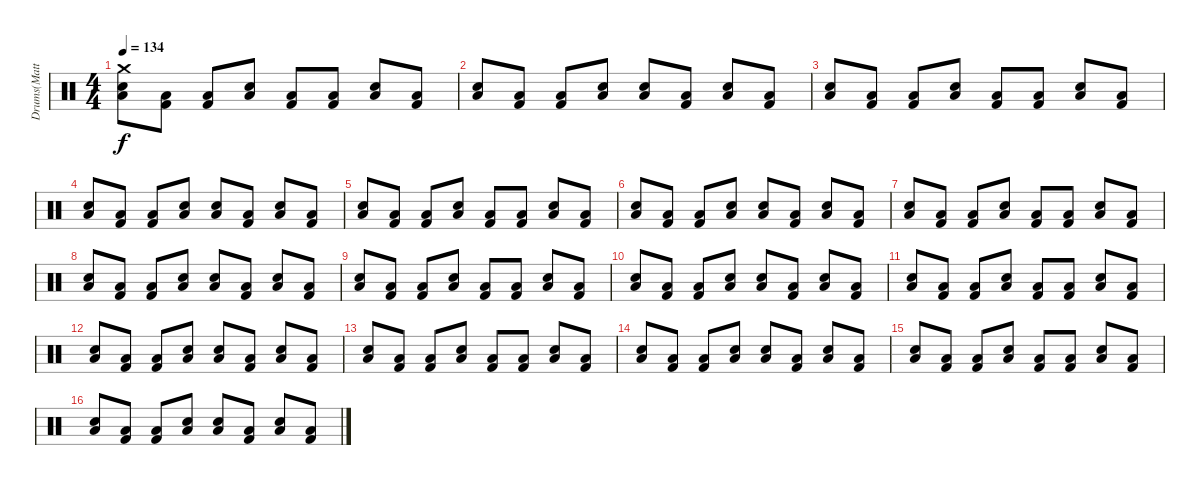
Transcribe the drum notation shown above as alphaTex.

\track ("Drums(Matthias)" "Drums(Matt") {instrument percussion}
\staff {score}
\articulation defaults
\ts (4 4)
\tempo 134
\clef neutral
\ks c
("Crash medium (hit)" "Low Tom (hit)" "Snare (hit) 2").8{dy f volume 10} ("Low Tom (hit)" "Kick (hit) 2").8 ("Low Tom (hit)" "Kick (hit) 2").8 ("Low Tom (hit)" "Snare (hit) 2").8 ("Low Tom (hit)" "Kick (hit) 2").8 ("Low Tom (hit)" "Kick (hit) 2").8 ("Low Tom (hit)" "Snare (hit) 2").8 ("Low Tom (hit)" "Kick (hit) 2").8 |
("Low Tom (hit)" "Snare (hit) 2").8 ("Low Tom (hit)" "Kick (hit) 2").8 ("Low Tom (hit)" "Kick (hit) 2").8 ("Low Tom (hit)" "Snare (hit) 2").8 ("Low Tom (hit)" "Snare (hit) 2").8 ("Low Tom (hit)" "Kick (hit) 2").8 ("Low Tom (hit)" "Snare (hit) 2").8 ("Low Tom (hit)" "Kick (hit) 2").8 |
("Low Tom (hit)" "Snare (hit) 2").8 ("Low Tom (hit)" "Kick (hit) 2").8 ("Low Tom (hit)" "Kick (hit) 2").8 ("Low Tom (hit)" "Snare (hit) 2").8 ("Low Tom (hit)" "Kick (hit) 2").8 ("Low Tom (hit)" "Kick (hit) 2").8 ("Low Tom (hit)" "Snare (hit) 2").8 ("Low Tom (hit)" "Kick (hit) 2").8 |
("Low Tom (hit)" "Snare (hit) 2").8 ("Low Tom (hit)" "Kick (hit) 2").8 ("Low Tom (hit)" "Kick (hit) 2").8 ("Low Tom (hit)" "Snare (hit) 2").8 ("Low Tom (hit)" "Snare (hit) 2").8 ("Low Tom (hit)" "Kick (hit) 2").8 ("Low Tom (hit)" "Snare (hit) 2").8 ("Low Tom (hit)" "Kick (hit) 2").8 |
("Low Tom (hit)" "Snare (hit) 2").8 ("Low Tom (hit)" "Kick (hit) 2").8 ("Low Tom (hit)" "Kick (hit) 2").8 ("Low Tom (hit)" "Snare (hit) 2").8 ("Low Tom (hit)" "Kick (hit) 2").8 ("Low Tom (hit)" "Kick (hit) 2").8 ("Low Tom (hit)" "Snare (hit) 2").8 ("Low Tom (hit)" "Kick (hit) 2").8 |
("Low Tom (hit)" "Snare (hit) 2").8 ("Low Tom (hit)" "Kick (hit) 2").8 ("Low Tom (hit)" "Kick (hit) 2").8 ("Low Tom (hit)" "Snare (hit) 2").8 ("Low Tom (hit)" "Snare (hit) 2").8 ("Low Tom (hit)" "Kick (hit) 2").8 ("Low Tom (hit)" "Snare (hit) 2").8 ("Low Tom (hit)" "Kick (hit) 2").8 |
("Low Tom (hit)" "Snare (hit) 2").8 ("Low Tom (hit)" "Kick (hit) 2").8 ("Low Tom (hit)" "Kick (hit) 2").8 ("Low Tom (hit)" "Snare (hit) 2").8 ("Low Tom (hit)" "Kick (hit) 2").8 ("Low Tom (hit)" "Kick (hit) 2").8 ("Low Tom (hit)" "Snare (hit) 2").8 ("Low Tom (hit)" "Kick (hit) 2").8 |
("Low Tom (hit)" "Snare (hit) 2").8 ("Low Tom (hit)" "Kick (hit) 2").8 ("Low Tom (hit)" "Kick (hit) 2").8 ("Low Tom (hit)" "Snare (hit) 2").8 ("Low Tom (hit)" "Snare (hit) 2").8 ("Low Tom (hit)" "Kick (hit) 2").8 ("Low Tom (hit)" "Snare (hit) 2").8 ("Low Tom (hit)" "Kick (hit) 2").8 |
("Low Tom (hit)" "Snare (hit) 2").8 ("Low Tom (hit)" "Kick (hit) 2").8 ("Low Tom (hit)" "Kick (hit) 2").8 ("Low Tom (hit)" "Snare (hit) 2").8 ("Low Tom (hit)" "Kick (hit) 2").8 ("Low Tom (hit)" "Kick (hit) 2").8 ("Low Tom (hit)" "Snare (hit) 2").8 ("Low Tom (hit)" "Kick (hit) 2").8 |
("Low Tom (hit)" "Snare (hit) 2").8 ("Low Tom (hit)" "Kick (hit) 2").8 ("Low Tom (hit)" "Kick (hit) 2").8 ("Low Tom (hit)" "Snare (hit) 2").8 ("Low Tom (hit)" "Snare (hit) 2").8 ("Low Tom (hit)" "Kick (hit) 2").8 ("Low Tom (hit)" "Snare (hit) 2").8 ("Low Tom (hit)" "Kick (hit) 2").8 |
("Low Tom (hit)" "Snare (hit) 2").8 ("Low Tom (hit)" "Kick (hit) 2").8 ("Low Tom (hit)" "Kick (hit) 2").8 ("Low Tom (hit)" "Snare (hit) 2").8 ("Low Tom (hit)" "Kick (hit) 2").8 ("Low Tom (hit)" "Kick (hit) 2").8 ("Low Tom (hit)" "Snare (hit) 2").8 ("Low Tom (hit)" "Kick (hit) 2").8 |
("Low Tom (hit)" "Snare (hit) 2").8 ("Low Tom (hit)" "Kick (hit) 2").8 ("Low Tom (hit)" "Kick (hit) 2").8 ("Low Tom (hit)" "Snare (hit) 2").8 ("Low Tom (hit)" "Snare (hit) 2").8 ("Low Tom (hit)" "Kick (hit) 2").8 ("Low Tom (hit)" "Snare (hit) 2").8 ("Low Tom (hit)" "Kick (hit) 2").8 |
("Low Tom (hit)" "Snare (hit) 2").8 ("Low Tom (hit)" "Kick (hit) 2").8 ("Low Tom (hit)" "Kick (hit) 2").8 ("Low Tom (hit)" "Snare (hit) 2").8 ("Low Tom (hit)" "Kick (hit) 2").8 ("Low Tom (hit)" "Kick (hit) 2").8 ("Low Tom (hit)" "Snare (hit) 2").8 ("Low Tom (hit)" "Kick (hit) 2").8 |
("Low Tom (hit)" "Snare (hit) 2").8 ("Low Tom (hit)" "Kick (hit) 2").8 ("Low Tom (hit)" "Kick (hit) 2").8 ("Low Tom (hit)" "Snare (hit) 2").8 ("Low Tom (hit)" "Snare (hit) 2").8 ("Low Tom (hit)" "Kick (hit) 2").8 ("Low Tom (hit)" "Snare (hit) 2").8 ("Low Tom (hit)" "Kick (hit) 2").8 |
("Low Tom (hit)" "Snare (hit) 2").8 ("Low Tom (hit)" "Kick (hit) 2").8 ("Low Tom (hit)" "Kick (hit) 2").8 ("Low Tom (hit)" "Snare (hit) 2").8 ("Low Tom (hit)" "Kick (hit) 2").8 ("Low Tom (hit)" "Kick (hit) 2").8 ("Low Tom (hit)" "Snare (hit) 2").8 ("Low Tom (hit)" "Kick (hit) 2").8 |
("Low Tom (hit)" "Snare (hit) 2").8 ("Low Tom (hit)" "Kick (hit) 2").8 ("Low Tom (hit)" "Kick (hit) 2").8 ("Low Tom (hit)" "Snare (hit) 2").8 ("Low Tom (hit)" "Snare (hit) 2").8 ("Low Tom (hit)" "Kick (hit) 2").8 ("Low Tom (hit)" "Snare (hit) 2").8 ("Low Tom (hit)" "Kick (hit) 2").8
